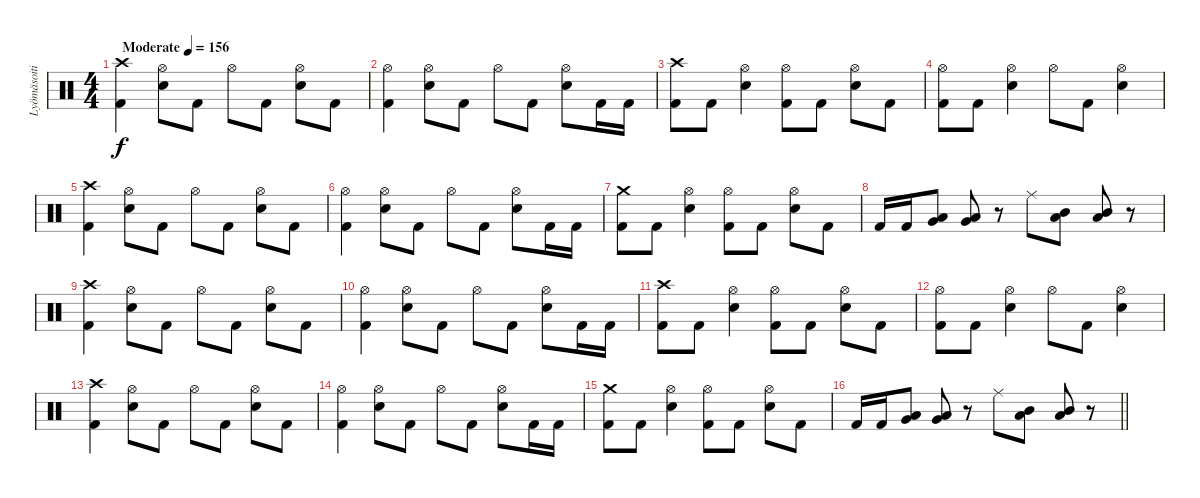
\track ("Lyömäsoitin" "Lyömäsoiti") {instrument percussion}
\staff {score}
\articulation defaults
\ts (4 4)
\tempo (156 "Moderate")
\clef neutral
\ks c
("Crash high (hit)" "Kick (hit) 2").4{dy f} ("Hi-Hat (open)" "Electric Snare (hit)").8 "Kick (hit) 2".8 "Hi-Hat (open)".8 "Kick (hit) 2".8 ("Hi-Hat (open)" "Electric Snare (hit)").8 "Kick (hit) 2".8 |
("Hi-Hat (open)" "Kick (hit) 2").4 ("Hi-Hat (open)" "Electric Snare (hit)").8 "Kick (hit) 2".8 "Hi-Hat (open)".8 "Kick (hit) 2".8 ("Hi-Hat (open)" "Electric Snare (hit)").8 "Kick (hit) 2".16 "Kick (hit) 2".16 |
("Crash high (hit)" "Kick (hit) 2").8 "Kick (hit) 2".8 ("Hi-Hat (open)" "Electric Snare (hit)").4 ("Hi-Hat (open)" "Kick (hit) 2").8 "Kick (hit) 2".8 ("Hi-Hat (open)" "Electric Snare (hit)").8 "Kick (hit) 2".8 |
("Hi-Hat (open)" "Kick (hit) 2").8 "Kick (hit) 2".8 ("Hi-Hat (open)" "Electric Snare (hit)").4 "Hi-Hat (open)".8 "Kick (hit) 2".8 ("Hi-Hat (open)" "Electric Snare (hit)").4 |
("Crash high (hit)" "Kick (hit) 2").4 ("Hi-Hat (open)" "Electric Snare (hit)").8 "Kick (hit) 2".8 "Hi-Hat (open)".8 "Kick (hit) 2".8 ("Hi-Hat (open)" "Electric Snare (hit)").8 "Kick (hit) 2".8 |
("Hi-Hat (open)" "Kick (hit) 2").4 ("Hi-Hat (open)" "Electric Snare (hit)").8 "Kick (hit) 2".8 "Hi-Hat (open)".8 "Kick (hit) 2".8 ("Hi-Hat (open)" "Electric Snare (hit)").8 "Kick (hit) 2".16 "Kick (hit) 2".16 |
("Crash medium (hit)" "Kick (hit) 2").8 "Kick (hit) 2".8 ("Hi-Hat (open)" "Electric Snare (hit)").4 ("Hi-Hat (open)" "Kick (hit) 2").8 "Kick (hit) 2".8 ("Hi-Hat (open)" "Electric Snare (hit)").8 "Kick (hit) 2".8 |
"Kick (hit) 2".16 "Kick (hit) 2".16 ("Low Floor Tom (hit)" "Very Low Tom (hit)").8 ("Low Floor Tom (hit)" "Very Low Tom (hit)").8 r.8 "Ride (middle)".8 ("Mid Tom (hit)" "Low Tom (hit)").8 ("Mid Tom (hit)" "Low Tom (hit)").8 r.8 |
("Crash high (hit)" "Kick (hit) 2").4 ("Hi-Hat (open)" "Electric Snare (hit)").8 "Kick (hit) 2".8 "Hi-Hat (open)".8 "Kick (hit) 2".8 ("Hi-Hat (open)" "Electric Snare (hit)").8 "Kick (hit) 2".8 |
("Hi-Hat (open)" "Kick (hit) 2").4 ("Hi-Hat (open)" "Electric Snare (hit)").8 "Kick (hit) 2".8 "Hi-Hat (open)".8 "Kick (hit) 2".8 ("Hi-Hat (open)" "Electric Snare (hit)").8 "Kick (hit) 2".16 "Kick (hit) 2".16 |
("Crash high (hit)" "Kick (hit) 2").8 "Kick (hit) 2".8 ("Hi-Hat (open)" "Electric Snare (hit)").4 ("Hi-Hat (open)" "Kick (hit) 2").8 "Kick (hit) 2".8 ("Hi-Hat (open)" "Electric Snare (hit)").8 "Kick (hit) 2".8 |
("Hi-Hat (open)" "Kick (hit) 2").8 "Kick (hit) 2".8 ("Hi-Hat (open)" "Electric Snare (hit)").4 "Hi-Hat (open)".8 "Kick (hit) 2".8 ("Hi-Hat (open)" "Electric Snare (hit)").4 |
("Crash high (hit)" "Kick (hit) 2").4 ("Hi-Hat (open)" "Electric Snare (hit)").8 "Kick (hit) 2".8 "Hi-Hat (open)".8 "Kick (hit) 2".8 ("Hi-Hat (open)" "Electric Snare (hit)").8 "Kick (hit) 2".8 |
("Hi-Hat (open)" "Kick (hit) 2").4 ("Hi-Hat (open)" "Electric Snare (hit)").8 "Kick (hit) 2".8 "Hi-Hat (open)".8 "Kick (hit) 2".8 ("Hi-Hat (open)" "Electric Snare (hit)").8 "Kick (hit) 2".16 "Kick (hit) 2".16 |
("Crash medium (hit)" "Kick (hit) 2").8 "Kick (hit) 2".8 ("Hi-Hat (open)" "Electric Snare (hit)").4 ("Hi-Hat (open)" "Kick (hit) 2").8 "Kick (hit) 2".8 ("Hi-Hat (open)" "Electric Snare (hit)").8 "Kick (hit) 2".8 |
\barLineRight lightlight "Kick (hit) 2".16 "Kick (hit) 2".16
("Low Floor Tom (hit)" "Very Low Tom (hit)").8 ("Low Floor Tom (hit)" "Very Low Tom (hit)").8 r.8 "Ride (middle)".8 ("Mid Tom (hit)" "Low Tom (hit)").8 ("Mid Tom (hit)" "Low Tom (hit)").8 r.8
